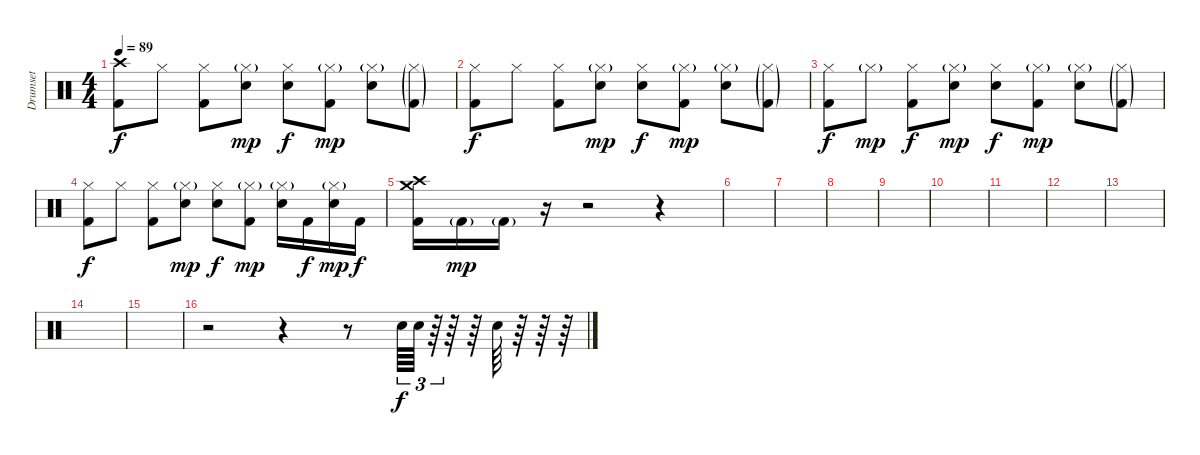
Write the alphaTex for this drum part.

\track ("Drumset" "Drumset") {instrument percussion}
\staff {score}
\articulation defaults
\ts (4 4)
\tempo 89
\clef neutral
\ks c
("Crash high (hit)" "Kick (hit) 2").8{dy f} "Hi-Hat (closed)".8 ("Hi-Hat (closed)" "Kick (hit) 2").8 ("Hi-Hat (closed)"{g} "Electric Snare (hit)").8{dy mp} ("Hi-Hat (closed)" "Snare (hit) 2").8{dy f} ("Hi-Hat (closed)"{g} "Kick (hit) 2").8{dy mp} ("Hi-Hat (closed)"{g} "Electric Snare (hit)").8 ("Hi-Hat (closed)"{g} "Kick (hit) 2"{g}).8 |
("Hi-Hat (closed)" "Kick (hit) 2").8{dy f} "Hi-Hat (closed)".8 ("Hi-Hat (closed)" "Kick (hit) 2").8 ("Hi-Hat (closed)"{g} "Electric Snare (hit)").8{dy mp} ("Hi-Hat (closed)" "Snare (hit) 2").8{dy f} ("Hi-Hat (closed)"{g} "Kick (hit) 2").8{dy mp} ("Hi-Hat (closed)"{g} "Electric Snare (hit)").8 ("Hi-Hat (closed)"{g} "Kick (hit) 2"{g}).8 |
("Hi-Hat (closed)" "Kick (hit) 2").8{dy f} "Hi-Hat (closed)"{g}.8{dy mp} ("Hi-Hat (closed)" "Kick (hit) 2").8{dy f} ("Hi-Hat (closed)"{g} "Electric Snare (hit)").8{dy mp} ("Hi-Hat (closed)" "Snare (hit) 2").8{dy f} ("Hi-Hat (closed)"{g} "Kick (hit) 2").8{dy mp} ("Hi-Hat (closed)"{g} "Electric Snare (hit)").8 ("Hi-Hat (closed)"{g} "Kick (hit) 2"{g}).8 |
("Hi-Hat (closed)" "Kick (hit) 2").8{dy f} "Hi-Hat (closed)".8 ("Hi-Hat (closed)" "Kick (hit) 2").8 ("Hi-Hat (closed)"{g} "Electric Snare (hit)").8{dy mp} ("Hi-Hat (closed)" "Snare (hit) 2").8{dy f} ("Hi-Hat (closed)"{g} "Kick (hit) 2").8{dy mp} ("Hi-Hat (closed)"{g} "Electric Snare (hit)").16 "Kick (hit) 2".16{dy f} ("Hi-Hat (closed)"{g} "Electric Snare (hit)").16{dy mp} "Kick (hit) 2".16{dy f} |
("Crash high (hit)" "Crash medium (hit)" "Kick (hit) 2").16 "Kick (hit) 2"{g}.16{dy mp} "Kick (hit) 2"{g}.16 r.16 r.2 r.4 |
|
|
|
|
|
|
|
|
|
|
r.2 r.4 r.8 "Electric Snare (hit)".64{tu (3 2) dy f} "Electric Snare (hit)".64{tu (3 2)} r.64{tu (3 2)} r.64 r.64 "Electric Snare (hit)".64 r.64 r.64 r.64
